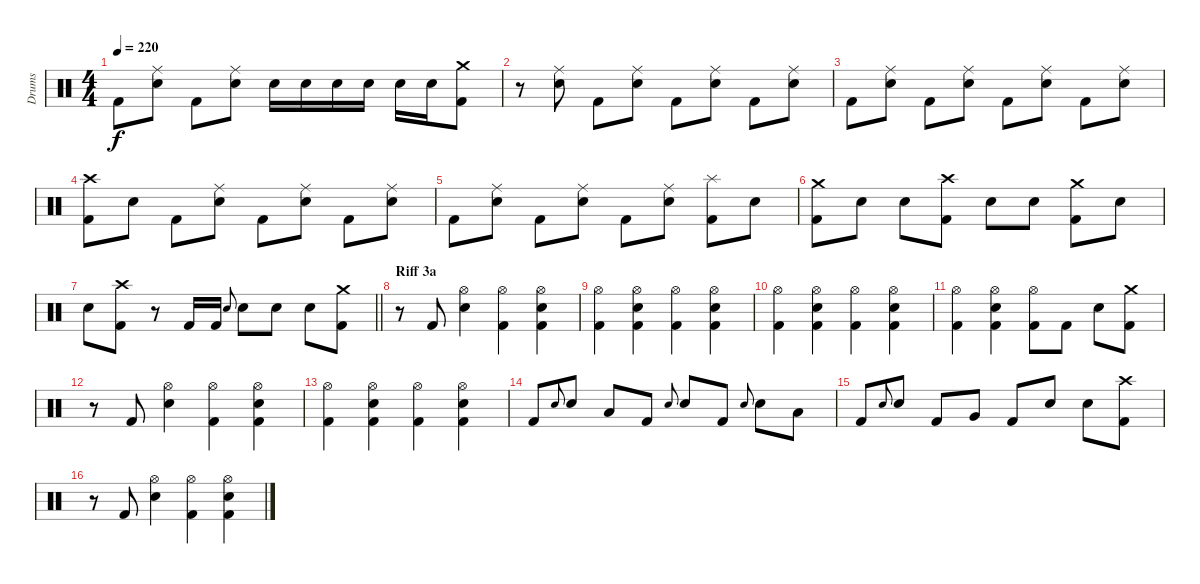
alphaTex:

\track ("Drums" "Drums") {instrument percussion}
\staff {score}
\articulation defaults
\ts (4 4)
\tempo 220
\clef neutral
\ks c "Kick (hit) 2".8{dy f}
("Ride (middle)" "Electric Snare (hit)").8 "Kick (hit) 2".8 ("Ride (middle)" "Electric Snare (hit)").8 "Electric Snare (hit)".16 "Electric Snare (hit)".16 "Electric Snare (hit)".16 "Electric Snare (hit)".16 "Electric Snare (hit)".16 "Electric Snare (hit)".16 ("Kick (hit) 2" "Crash medium (hit)").8 |
r.8 ("Ride (middle)" "Electric Snare (hit)").8 "Kick (hit) 2".8 ("Ride (middle)" "Electric Snare (hit)").8 "Kick (hit) 2".8 ("Ride (middle)" "Electric Snare (hit)").8 "Kick (hit) 2".8 ("Ride (middle)" "Electric Snare (hit)").8 |
"Kick (hit) 2".8 ("Ride (middle)" "Electric Snare (hit)").8 "Kick (hit) 2".8 ("Ride (middle)" "Electric Snare (hit)").8 "Kick (hit) 2".8 ("Ride (middle)" "Electric Snare (hit)").8 "Kick (hit) 2".8 ("Ride (middle)" "Electric Snare (hit)").8 |
("Crash high (hit)" "Kick (hit) 2").8 "Electric Snare (hit)".8 "Kick (hit) 2".8 ("Ride (middle)" "Electric Snare (hit)").8 "Kick (hit) 2".8 ("Ride (middle)" "Electric Snare (hit)").8 "Kick (hit) 2".8 ("Ride (middle)" "Electric Snare (hit)").8 |
"Kick (hit) 2".8 ("Ride (middle)" "Electric Snare (hit)").8 "Kick (hit) 2".8 ("Ride (middle)" "Electric Snare (hit)").8 "Kick (hit) 2".8 ("Ride (middle)" "Electric Snare (hit)").8 ("Splash (hit)" "Kick (hit) 2").8 "Electric Snare (hit)".8 |
("Kick (hit) 2" "Crash medium (hit)").8 "Electric Snare (hit)".8 "Electric Snare (hit)".8 ("Crash high (hit)" "Kick (hit) 2").8 "Electric Snare (hit)".8 "Electric Snare (hit)".8 ("Kick (hit) 2" "Crash medium (hit)").8 "Electric Snare (hit)".8 |
\barLineRight lightlight "Electric Snare (hit)".8
("Kick (hit) 2" "Crash high (hit)").8 r.8 "Kick (hit) 2".16 "Kick (hit) 2".16 "Electric Snare (hit)".8{gr onbeat} "Electric Snare (hit)".8 "Electric Snare (hit)".8 "Electric Snare (hit)".8 ("Kick (hit) 2" "Crash medium (hit)").8 |
\section ("" "Riff 3a")
r.8 "Kick (hit) 2".8 ("Electric Snare (hit)" "Hi-Hat (open)").4 ("Kick (hit) 2" "Hi-Hat (open)").4 ("Kick (hit) 2" "Electric Snare (hit)" "Hi-Hat (open)").4 |
("Kick (hit) 2" "Hi-Hat (open)").4 ("Kick (hit) 2" "Electric Snare (hit)" "Hi-Hat (open)").4 ("Kick (hit) 2" "Hi-Hat (open)").4 ("Kick (hit) 2" "Electric Snare (hit)" "Hi-Hat (open)").4 |
("Kick (hit) 2" "Hi-Hat (open)").4 ("Kick (hit) 2" "Electric Snare (hit)" "Hi-Hat (open)").4 ("Kick (hit) 2" "Hi-Hat (open)").4 ("Kick (hit) 2" "Electric Snare (hit)" "Hi-Hat (open)").4 |
("Kick (hit) 2" "Hi-Hat (open)").4 ("Kick (hit) 2" "Electric Snare (hit)" "Hi-Hat (open)").4 ("Kick (hit) 2" "Hi-Hat (open)").8 "Kick (hit) 2".8 "Electric Snare (hit)".8 ("Kick (hit) 2" "Crash medium (hit)").8 |
r.8 "Kick (hit) 2".8 ("Electric Snare (hit)" "Hi-Hat (open)").4 ("Kick (hit) 2" "Hi-Hat (open)").4 ("Kick (hit) 2" "Electric Snare (hit)" "Hi-Hat (open)").4 |
("Kick (hit) 2" "Hi-Hat (open)").4 ("Kick (hit) 2" "Electric Snare (hit)" "Hi-Hat (open)").4 ("Kick (hit) 2" "Hi-Hat (open)").4 ("Kick (hit) 2" "Electric Snare (hit)" "Hi-Hat (open)").4 |
"Kick (hit) 2".8 "Electric Snare (hit)".8{gr onbeat} "Electric Snare (hit)".8 "Low Tom (hit)".8 "Kick (hit) 2".8 "Electric Snare (hit)".8{gr onbeat} "Electric Snare (hit)".8 "Kick (hit) 2".8 "Electric Snare (hit)".8{gr onbeat} "Electric Snare (hit)".8 "Low Tom (hit)".8 |
"Kick (hit) 2".8 "Electric Snare (hit)".8{gr onbeat} "Electric Snare (hit)".8 "Kick (hit) 2".8 "Very Low Tom (hit)".8 "Kick (hit) 2".8 "Electric Snare (hit)".8 "Electric Snare (hit)".8 ("Crash high (hit)" "Kick (hit) 2").8 |
r.8 "Kick (hit) 2".8 ("Electric Snare (hit)" "Hi-Hat (open)").4 ("Kick (hit) 2" "Hi-Hat (open)").4 ("Kick (hit) 2" "Electric Snare (hit)" "Hi-Hat (open)").4
